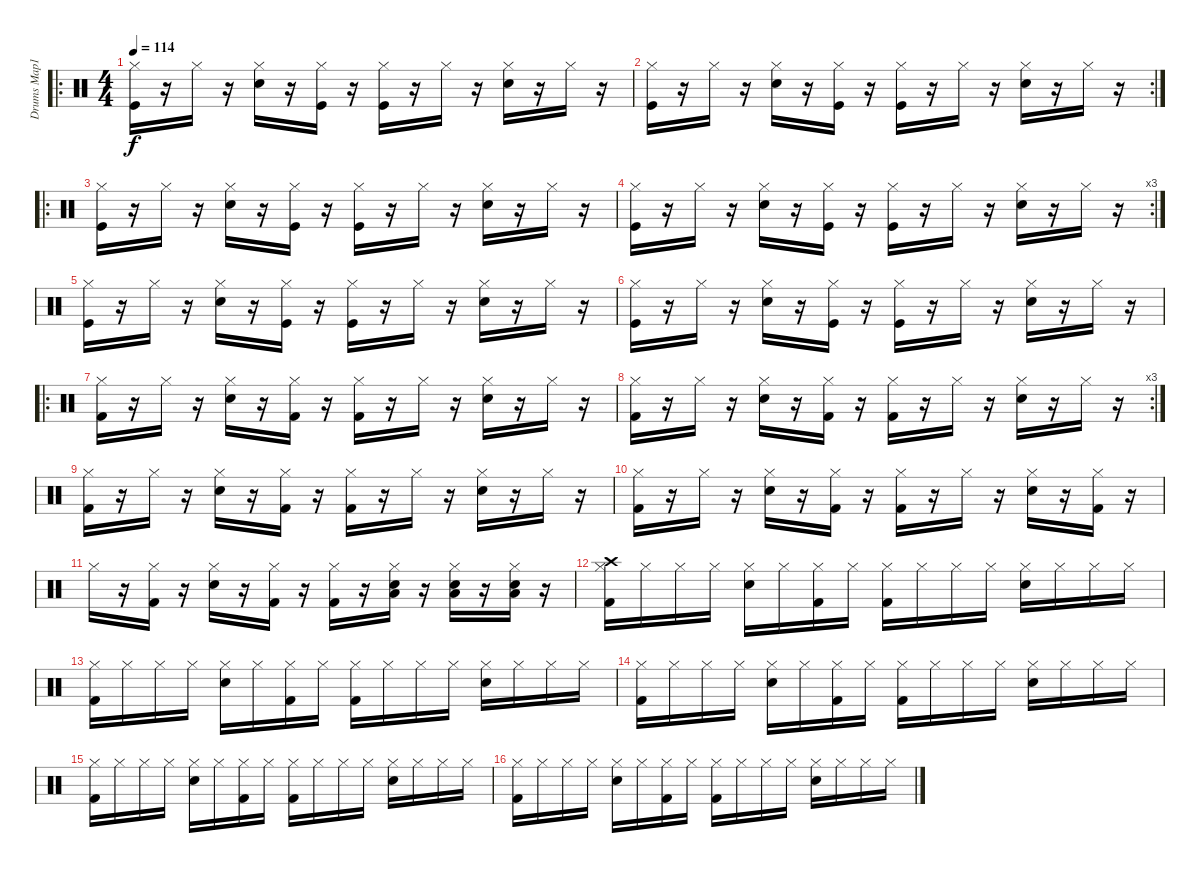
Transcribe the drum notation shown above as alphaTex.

\track ("Drums Map1" "Drums Map1") {instrument percussion}
\staff {score}
\articulation defaults
\ro
\ts (4 4)
\tempo 114
\clef neutral
\ks c
("Kick (hit)" "Hi-Hat (closed)").16{dy f} r.16 "Hi-Hat (closed)".16 r.16 ("Snare (hit) 2" "Hi-Hat (closed)").16 r.16 ("Kick (hit)" "Hi-Hat (closed)").16 r.16 ("Kick (hit)" "Hi-Hat (closed)").16 r.16 "Hi-Hat (closed)".16 r.16 ("Snare (hit) 2" "Hi-Hat (closed)").16 r.16 "Hi-Hat (closed)".16 r.16 |
\rc 2
("Kick (hit)" "Hi-Hat (closed)").16 r.16 "Hi-Hat (closed)".16 r.16 ("Snare (hit) 2" "Hi-Hat (closed)").16 r.16 ("Kick (hit)" "Hi-Hat (closed)").16 r.16 ("Kick (hit)" "Hi-Hat (closed)").16 r.16 "Hi-Hat (closed)".16 r.16 ("Snare (hit) 2" "Hi-Hat (closed)").16 r.16 "Hi-Hat (closed)".16 r.16 |
\ro
("Kick (hit)" "Hi-Hat (closed)").16 r.16 "Hi-Hat (closed)".16 r.16 ("Snare (hit) 2" "Hi-Hat (closed)").16 r.16 ("Kick (hit)" "Hi-Hat (closed)").16 r.16 ("Kick (hit)" "Hi-Hat (closed)").16 r.16 "Hi-Hat (closed)".16 r.16 ("Snare (hit) 2" "Hi-Hat (closed)").16 r.16 "Hi-Hat (closed)".16 r.16 |
\rc 3
("Kick (hit)" "Hi-Hat (closed)").16 r.16 "Hi-Hat (closed)".16 r.16 ("Snare (hit) 2" "Hi-Hat (closed)").16 r.16 ("Kick (hit)" "Hi-Hat (closed)").16 r.16 ("Kick (hit)" "Hi-Hat (closed)").16 r.16 "Hi-Hat (closed)".16 r.16 ("Snare (hit) 2" "Hi-Hat (closed)").16 r.16 "Hi-Hat (closed)".16 r.16 |
("Kick (hit)" "Hi-Hat (closed)").16 r.16 "Hi-Hat (closed)".16 r.16 ("Snare (hit) 2" "Hi-Hat (closed)").16 r.16 ("Kick (hit)" "Hi-Hat (closed)").16 r.16 ("Kick (hit)" "Hi-Hat (closed)").16 r.16 "Hi-Hat (closed)".16 r.16 ("Snare (hit) 2" "Hi-Hat (closed)").16 r.16 "Hi-Hat (closed)".16 r.16 |
("Kick (hit)" "Hi-Hat (closed)").16 r.16 "Hi-Hat (closed)".16 r.16 ("Snare (hit) 2" "Hi-Hat (closed)").16 r.16 ("Kick (hit)" "Hi-Hat (closed)").16 r.16 ("Kick (hit)" "Hi-Hat (closed)").16 r.16 "Hi-Hat (closed)".16 r.16 ("Snare (hit) 2" "Hi-Hat (closed)").16 r.16 "Hi-Hat (closed)".16 r.16 |
\ro
("Kick (hit) 2" "Hi-Hat (closed)").16 r.16 "Hi-Hat (closed)".16 r.16 ("Snare (hit) 2" "Hi-Hat (closed)").16 r.16 ("Kick (hit) 2" "Hi-Hat (closed)").16 r.16 ("Kick (hit) 2" "Hi-Hat (closed)").16 r.16 "Hi-Hat (closed)".16 r.16 ("Snare (hit) 2" "Hi-Hat (closed)").16 r.16 "Hi-Hat (closed)".16 r.16 |
\rc 3
("Kick (hit) 2" "Hi-Hat (closed)").16 r.16 "Hi-Hat (closed)".16 r.16 ("Snare (hit) 2" "Hi-Hat (closed)").16 r.16 ("Kick (hit) 2" "Hi-Hat (closed)").16 r.16 ("Kick (hit) 2" "Hi-Hat (closed)").16 r.16 "Hi-Hat (closed)".16 r.16 ("Snare (hit) 2" "Hi-Hat (closed)").16 r.16 "Hi-Hat (closed)".16 r.16 |
("Kick (hit) 2" "Hi-Hat (closed)").16 r.16 "Hi-Hat (closed)".16 r.16 ("Snare (hit) 2" "Hi-Hat (closed)").16 r.16 ("Kick (hit) 2" "Hi-Hat (closed)").16 r.16 ("Kick (hit) 2" "Hi-Hat (closed)").16 r.16 "Hi-Hat (closed)".16 r.16 ("Snare (hit) 2" "Hi-Hat (closed)").16 r.16 "Hi-Hat (closed)".16 r.16 |
("Kick (hit) 2" "Hi-Hat (closed)").16 r.16 "Hi-Hat (closed)".16 r.16 ("Snare (hit) 2" "Hi-Hat (closed)").16 r.16 ("Kick (hit) 2" "Hi-Hat (closed)").16 r.16 ("Kick (hit) 2" "Hi-Hat (closed)").16 r.16 "Hi-Hat (closed)".16 r.16 ("Snare (hit) 2" "Hi-Hat (closed)").16 r.16 ("Kick (hit) 2" "Hi-Hat (closed)").16 r.16 |
"Hi-Hat (closed)".16 r.16 ("Kick (hit) 2" "Hi-Hat (closed)").16 r.16 ("Snare (hit) 2" "Hi-Hat (closed)").16 r.16 ("Kick (hit) 2" "Hi-Hat (closed)").16 r.16 ("Kick (hit) 2" "Hi-Hat (closed)").16 r.16 ("Electric Snare (hit)" "Low Floor Tom (hit)" "Hi-Hat (closed)").16 r.16 ("Electric Snare (hit)" "Low Floor Tom (hit)" "Hi-Hat (closed)").16 r.16 ("Electric Snare (hit)" "Low Floor Tom (hit)" "Hi-Hat (closed)").16 r.16 |
("Kick (hit) 2" "Hi-Hat (closed)" "Crash high (hit)").16 "Hi-Hat (closed)".16 "Hi-Hat (closed)".16 "Hi-Hat (closed)".16 ("Snare (hit) 2" "Hi-Hat (closed)").16 "Hi-Hat (closed)".16 ("Kick (hit) 2" "Hi-Hat (closed)").16 "Hi-Hat (closed)".16 ("Kick (hit) 2" "Hi-Hat (closed)").16 "Hi-Hat (closed)".16 "Hi-Hat (closed)".16 "Hi-Hat (closed)".16 ("Snare (hit) 2" "Hi-Hat (closed)").16 "Hi-Hat (closed)".16 "Hi-Hat (closed)".16 "Hi-Hat (closed)".16 |
("Kick (hit) 2" "Hi-Hat (closed)").16 "Hi-Hat (closed)".16 "Hi-Hat (closed)".16 "Hi-Hat (closed)".16 ("Snare (hit) 2" "Hi-Hat (closed)").16 "Hi-Hat (closed)".16 ("Kick (hit) 2" "Hi-Hat (closed)").16 "Hi-Hat (closed)".16 ("Kick (hit) 2" "Hi-Hat (closed)").16 "Hi-Hat (closed)".16 "Hi-Hat (closed)".16 "Hi-Hat (closed)".16 ("Snare (hit) 2" "Hi-Hat (closed)").16 "Hi-Hat (closed)".16 "Hi-Hat (closed)".16 "Hi-Hat (closed)".16 |
("Kick (hit) 2" "Hi-Hat (closed)").16 "Hi-Hat (closed)".16 "Hi-Hat (closed)".16 "Hi-Hat (closed)".16 ("Snare (hit) 2" "Hi-Hat (closed)").16 "Hi-Hat (closed)".16 ("Kick (hit) 2" "Hi-Hat (closed)").16 "Hi-Hat (closed)".16 ("Kick (hit) 2" "Hi-Hat (closed)").16 "Hi-Hat (closed)".16 "Hi-Hat (closed)".16 "Hi-Hat (closed)".16 ("Snare (hit) 2" "Hi-Hat (closed)").16 "Hi-Hat (closed)".16 "Hi-Hat (closed)".16 "Hi-Hat (closed)".16 |
("Kick (hit) 2" "Hi-Hat (closed)").16 "Hi-Hat (closed)".16 "Hi-Hat (closed)".16 "Hi-Hat (closed)".16 ("Snare (hit) 2" "Hi-Hat (closed)").16 "Hi-Hat (closed)".16 ("Kick (hit) 2" "Hi-Hat (closed)").16 "Hi-Hat (closed)".16 ("Kick (hit) 2" "Hi-Hat (closed)").16 "Hi-Hat (closed)".16 "Hi-Hat (closed)".16 "Hi-Hat (closed)".16 ("Snare (hit) 2" "Hi-Hat (closed)").16 "Hi-Hat (closed)".16 "Hi-Hat (closed)".16 "Hi-Hat (closed)".16 |
("Kick (hit) 2" "Hi-Hat (closed)").16 "Hi-Hat (closed)".16 "Hi-Hat (closed)".16 "Hi-Hat (closed)".16 ("Snare (hit) 2" "Hi-Hat (closed)").16 "Hi-Hat (closed)".16 ("Kick (hit) 2" "Hi-Hat (closed)").16 "Hi-Hat (closed)".16 ("Kick (hit) 2" "Hi-Hat (closed)").16 "Hi-Hat (closed)".16 "Hi-Hat (closed)".16 "Hi-Hat (closed)".16 ("Snare (hit) 2" "Hi-Hat (closed)").16 "Hi-Hat (closed)".16 "Hi-Hat (closed)".16 "Hi-Hat (closed)".16
